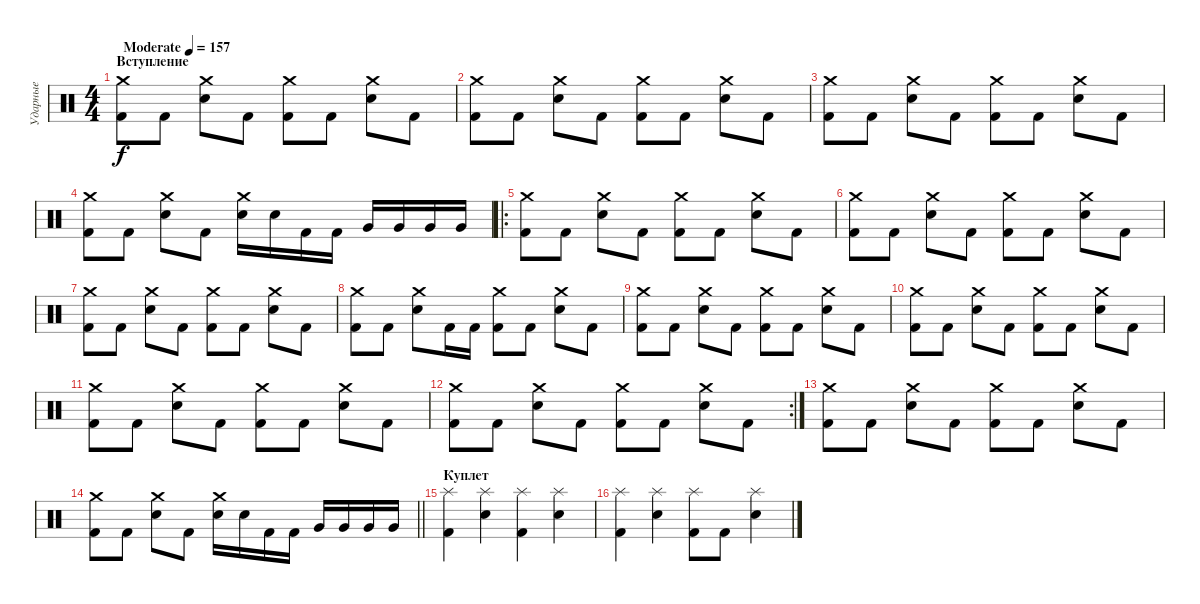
\track ("Ударные" "Ударные") {instrument percussion}
\staff {score}
\articulation defaults
\ts (4 4)
\section ("" "Вступление")
\tempo (157 "Moderate")
\clef neutral
\ks c
("Kick (hit) 2" "Crash medium (hit)").8{dy f volume 0} "Kick (hit) 2".8{volume 13} ("Snare (hit) 2" "Crash medium (hit)").8 "Kick (hit) 2".8 ("Kick (hit) 2" "Crash medium (hit)").8 "Kick (hit) 2".8 ("Snare (hit) 2" "Crash medium (hit)").8 "Kick (hit) 2".8 |
("Kick (hit) 2" "Crash medium (hit)").8 "Kick (hit) 2".8 ("Snare (hit) 2" "Crash medium (hit)").8 "Kick (hit) 2".8 ("Kick (hit) 2" "Crash medium (hit)").8 "Kick (hit) 2".8 ("Snare (hit) 2" "Crash medium (hit)").8 "Kick (hit) 2".8 |
("Kick (hit) 2" "Crash medium (hit)").8 "Kick (hit) 2".8 ("Snare (hit) 2" "Crash medium (hit)").8 "Kick (hit) 2".8 ("Kick (hit) 2" "Crash medium (hit)").8 "Kick (hit) 2".8 ("Snare (hit) 2" "Crash medium (hit)").8 "Kick (hit) 2".8 |
("Kick (hit) 2" "Crash medium (hit)").8 "Kick (hit) 2".8 ("Snare (hit) 2" "Crash medium (hit)").8 "Kick (hit) 2".8 ("Electric Snare (hit)" "Crash medium (hit)").16 "Electric Snare (hit)".16 "Kick (hit) 2".16 "Kick (hit) 2".16 "Very Low Tom (hit)".16 "Very Low Tom (hit)".16 "Very Low Tom (hit)".16 "Very Low Tom (hit)".16 |
\ro
("Kick (hit) 2" "Crash medium (hit)").8 "Kick (hit) 2".8 ("Snare (hit) 2" "Crash medium (hit)").8 "Kick (hit) 2".8 ("Kick (hit) 2" "Crash medium (hit)").8 "Kick (hit) 2".8 ("Snare (hit) 2" "Crash medium (hit)").8 "Kick (hit) 2".8 |
("Kick (hit) 2" "Crash medium (hit)").8 "Kick (hit) 2".8 ("Snare (hit) 2" "Crash medium (hit)").8 "Kick (hit) 2".8 ("Kick (hit) 2" "Crash medium (hit)").8 "Kick (hit) 2".8 ("Snare (hit) 2" "Crash medium (hit)").8 "Kick (hit) 2".8 |
("Kick (hit) 2" "Crash medium (hit)").8 "Kick (hit) 2".8 ("Snare (hit) 2" "Crash medium (hit)").8 "Kick (hit) 2".8 ("Kick (hit) 2" "Crash medium (hit)").8 "Kick (hit) 2".8 ("Snare (hit) 2" "Crash medium (hit)").8 "Kick (hit) 2".8 |
("Kick (hit) 2" "Crash medium (hit)").8 "Kick (hit) 2".8 ("Snare (hit) 2" "Crash medium (hit)").8 "Kick (hit) 2".16 "Kick (hit) 2".16 ("Kick (hit) 2" "Crash medium (hit)").8 "Kick (hit) 2".8 ("Snare (hit) 2" "Crash medium (hit)").8 "Kick (hit) 2".8 |
("Kick (hit) 2" "Crash medium (hit)").8 "Kick (hit) 2".8 ("Snare (hit) 2" "Crash medium (hit)").8 "Kick (hit) 2".8 ("Kick (hit) 2" "Crash medium (hit)").8 "Kick (hit) 2".8 ("Snare (hit) 2" "Crash medium (hit)").8 "Kick (hit) 2".8 |
("Kick (hit) 2" "Crash medium (hit)").8 "Kick (hit) 2".8 ("Snare (hit) 2" "Crash medium (hit)").8 "Kick (hit) 2".8 ("Kick (hit) 2" "Crash medium (hit)").8 "Kick (hit) 2".8 ("Snare (hit) 2" "Crash medium (hit)").8 "Kick (hit) 2".8 |
("Kick (hit) 2" "Crash medium (hit)").8 "Kick (hit) 2".8 ("Snare (hit) 2" "Crash medium (hit)").8 "Kick (hit) 2".8 ("Kick (hit) 2" "Crash medium (hit)").8 "Kick (hit) 2".8 ("Snare (hit) 2" "Crash medium (hit)").8 "Kick (hit) 2".8 |
\rc 2
("Kick (hit) 2" "Crash medium (hit)").8 "Kick (hit) 2".8 ("Snare (hit) 2" "Crash medium (hit)").8 "Kick (hit) 2".8 ("Kick (hit) 2" "Crash medium (hit)").8 "Kick (hit) 2".8 ("Snare (hit) 2" "Crash medium (hit)").8 "Kick (hit) 2".8 |
("Kick (hit) 2" "Crash medium (hit)").8 "Kick (hit) 2".8 ("Snare (hit) 2" "Crash medium (hit)").8 "Kick (hit) 2".8 ("Kick (hit) 2" "Crash medium (hit)").8 "Kick (hit) 2".8 ("Snare (hit) 2" "Crash medium (hit)").8 "Kick (hit) 2".8 |
\barLineRight lightlight
("Kick (hit) 2" "Crash medium (hit)").8 "Kick (hit) 2".8 ("Snare (hit) 2" "Crash medium (hit)").8 "Kick (hit) 2".8 ("Electric Snare (hit)" "Crash medium (hit)").16 "Electric Snare (hit)".16 "Kick (hit) 2".16 "Kick (hit) 2".16 "Very Low Tom (hit)".16 "Very Low Tom (hit)".16 "Very Low Tom (hit)".16 "Very Low Tom (hit)".16 |
\section ("" "Куплет")
("Kick (hit) 2" "Splash (hit)").4 ("Electric Snare (hit)" "Splash (hit)").4 ("Kick (hit) 2" "Splash (hit)").4 ("Electric Snare (hit)" "Splash (hit)").4 |
("Kick (hit) 2" "Splash (hit)").4 ("Electric Snare (hit)" "Splash (hit)").4 ("Kick (hit) 2" "Splash (hit)").8 "Kick (hit) 2".8 ("Electric Snare (hit)" "Splash (hit)").4
